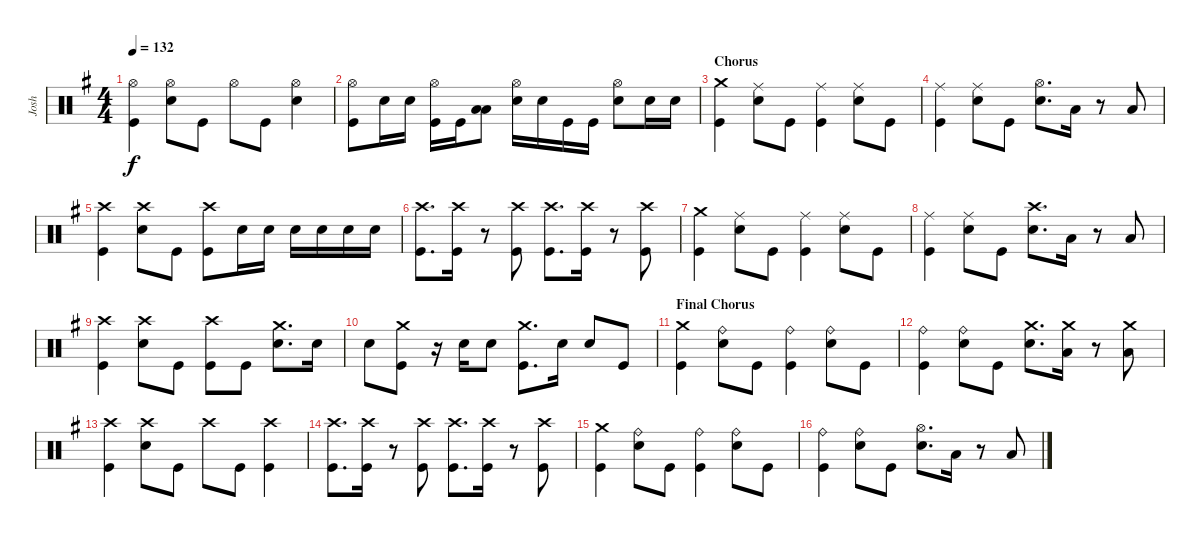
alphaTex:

\track ("Josh" "Josh") {instrument percussion}
\staff {score}
\articulation defaults
\ts (4 4)
\tempo 132
\clef neutral
\ks g
("Kick (hit)" "Hi-Hat (open)").4{dy f} ("Snare (hit) 2" "Hi-Hat (open)").8 "Kick (hit)".8 "Hi-Hat (open)".8 "Kick (hit)".8 ("Hi-Hat (open)" "Snare (hit) 2").4 |
("Kick (hit)" "Hi-Hat (open)").8 "Snare (hit) 2".16 "Snare (hit) 2".16 ("Kick (hit)" "Hi-Hat (open)").16 "Kick (hit)".16 ("Low Floor Tom (hit)" "Low Tom (hit)").8 ("Snare (hit) 2" "Hi-Hat (open)").16 "Snare (hit) 2".16 "Kick (hit)".16 "Kick (hit)".16 ("Snare (hit) 2" "Hi-Hat (open)").8 "Snare (hit) 2".16 "Snare (hit) 2".16 |
\section ("" "Chorus")
("Kick (hit)" "Crash medium (hit)").4 ("Snare (hit) 2" "Ride (middle)").8 "Kick (hit)".8 ("Kick (hit)" "Ride (middle)").4 ("Snare (hit) 2" "Ride (middle)").8 "Kick (hit)".8 |
("Kick (hit)" "Ride (middle)").4 ("Snare (hit) 2" "Ride (middle)").8 "Kick (hit)".8 ("Snare (hit) 2" "Hi-Hat (open)").8{d} "Low Tom (hit)".16 r.8 "Low Floor Tom (hit)".8 |
("Kick (hit)" "Crash high (hit)").4 ("Snare (hit) 2" "Crash high (hit)").8 "Kick (hit)".8 ("Kick (hit)" "Crash high (hit)").8 "Snare (hit) 2".16 "Snare (hit) 2".16 "Snare (hit) 2".16 "Snare (hit) 2".16 "Snare (hit) 2".16 "Snare (hit) 2".16 |
("Kick (hit)" "Crash high (hit)").8{d} ("Kick (hit)" "Crash high (hit)").16 r.8 ("Kick (hit)" "Crash high (hit)").8 ("Kick (hit)" "Crash high (hit)").8{d} ("Kick (hit)" "Crash high (hit)").16 r.8 ("Kick (hit)" "Crash high (hit)").8 |
("Kick (hit)" "Crash medium (hit)").4 ("Snare (hit) 2" "Ride (middle)").8 "Kick (hit)".8 ("Kick (hit)" "Ride (middle)").4 ("Snare (hit) 2" "Ride (middle)").8 "Kick (hit)".8 |
("Kick (hit)" "Ride (middle)").4 ("Snare (hit) 2" "Ride (middle)").8 "Kick (hit)".8 ("Snare (hit) 2" "Crash high (hit)").8{d} "Low Tom (hit)".16 r.8 "Low Floor Tom (hit)".8 |
("Kick (hit)" "Crash high (hit)").4 ("Snare (hit) 2" "Crash high (hit)").8 "Kick (hit)".8 ("Crash high (hit)" "Kick (hit)").8 "Kick (hit)".8 ("Crash medium (hit)" "Snare (hit) 2").8{d} "Snare (hit) 2".16 |
"Snare (hit) 2".8 ("Kick (hit)" "Crash medium (hit)").8 r.16 "Snare (hit) 2".16 "Snare (hit) 2".8 ("Kick (hit)" "Crash medium (hit)").8{d} "Snare (hit) 2".16 "Snare (hit) 2".8 "Kick (hit)".8 |
\section ("" "Final Chorus")
("Kick (hit)" "Crash medium (hit)").4 ("Snare (hit) 2" "Ride (bell)").8 "Kick (hit)".8 ("Kick (hit)" "Ride (bell)").4 ("Snare (hit) 2" "Ride (bell)").8 "Kick (hit)".8 |
("Kick (hit)" "Ride (bell)").4 ("Snare (hit) 2" "Ride (bell)").8 "Kick (hit)".8 ("Snare (hit) 2" "Crash medium (hit)").8{d} ("Low Tom (hit)" "Crash medium (hit)").16 r.8 ("Low Floor Tom (hit)" "Crash medium (hit)").8 |
("Kick (hit)" "Crash high (hit)").4 ("Snare (hit) 2" "Crash high (hit)").8 "Kick (hit)".8 "Crash high (hit)".8 "Kick (hit)".8 ("Kick (hit)" "Crash high (hit)").4 |
("Kick (hit)" "Crash high (hit)").8{d} ("Kick (hit)" "Crash high (hit)").16 r.8 ("Kick (hit)" "Crash high (hit)").8 ("Kick (hit)" "Crash high (hit)").8{d} ("Kick (hit)" "Crash high (hit)").16 r.8 ("Kick (hit)" "Crash high (hit)").8 |
("Kick (hit)" "Crash medium (hit)").4 ("Snare (hit) 2" "Ride (bell)").8 "Kick (hit)".8 ("Kick (hit)" "Ride (bell)").4 ("Snare (hit) 2" "Ride (bell)").8 "Kick (hit)".8 |
("Kick (hit)" "Ride (bell)").4 ("Snare (hit) 2" "Ride (bell)").8 "Kick (hit)".8 ("Snare (hit) 2" "Hi-Hat (open)").8{d} "Low Tom (hit)".16 r.8 "Low Floor Tom (hit)".8
